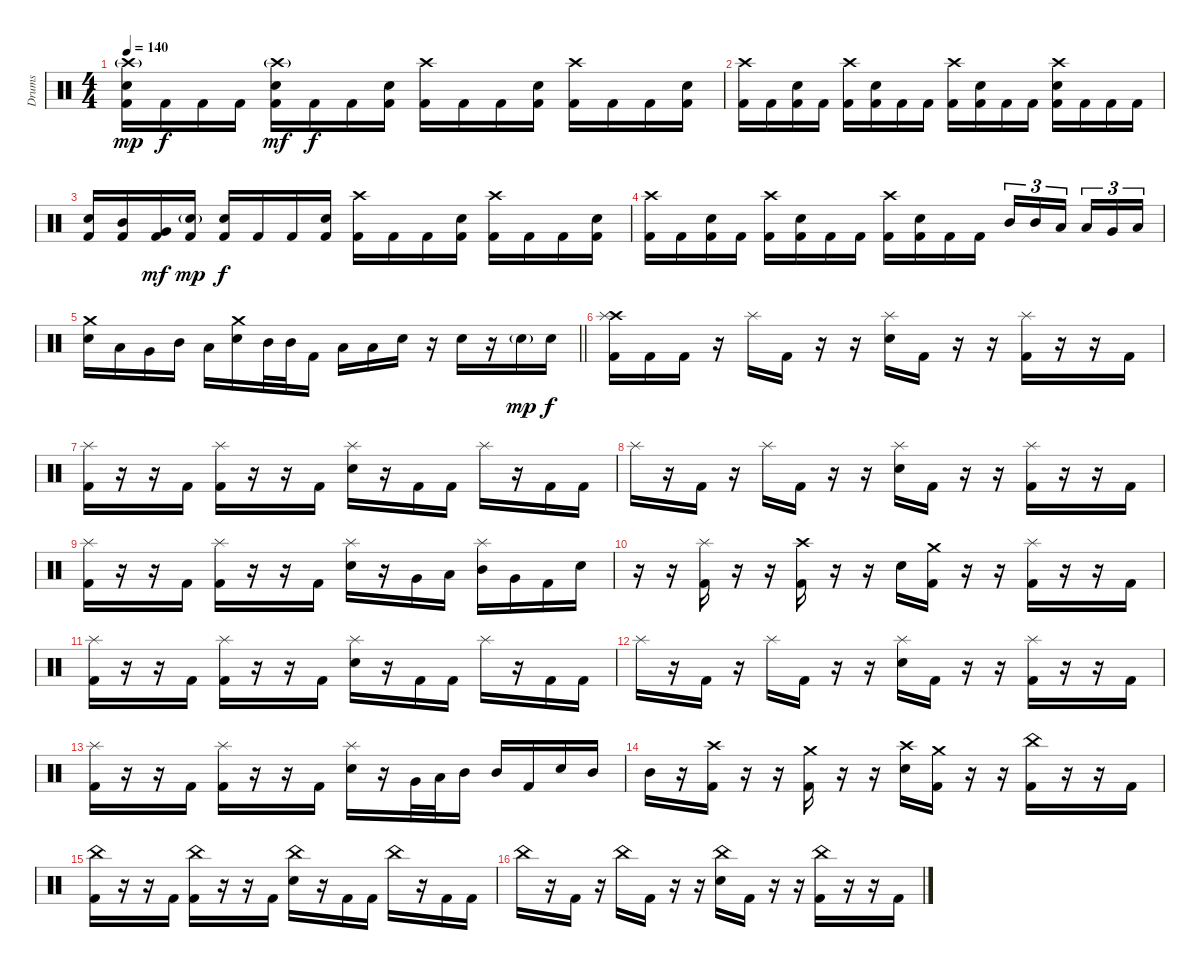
\track ("Drums" "Drums") {instrument percussion}
\staff {score}
\articulation defaults
\ts (4 4)
\tempo 140
\clef neutral
\ks c
("Crash high (hit)"{g} "Electric Snare (hit)" "Kick (hit) 2").16{dy mp} "Kick (hit) 2".16{dy f} "Kick (hit) 2".16 "Kick (hit) 2".16 ("Crash high (hit)"{g} "Electric Snare (hit)" "Kick (hit) 2").16{dy mf} "Kick (hit) 2".16{dy f} "Kick (hit) 2".16 ("Electric Snare (hit)" "Kick (hit) 2").16 ("Crash high (hit)" "Kick (hit) 2").16 "Kick (hit) 2".16 "Kick (hit) 2".16 ("Electric Snare (hit)" "Kick (hit) 2").16 ("Crash high (hit)" "Kick (hit) 2").16 "Kick (hit) 2".16 "Kick (hit) 2".16 ("Electric Snare (hit)" "Kick (hit) 2").16 |
("Crash high (hit)" "Kick (hit) 2").16 "Kick (hit) 2".16 ("Electric Snare (hit)" "Kick (hit) 2").16 "Kick (hit) 2".16 ("Crash high (hit)" "Kick (hit) 2").16 ("Electric Snare (hit)" "Kick (hit) 2").16 "Kick (hit) 2".16 "Kick (hit) 2".16 ("Crash high (hit)" "Kick (hit) 2").16 ("Electric Snare (hit)" "Kick (hit) 2").16 "Kick (hit) 2".16 "Kick (hit) 2".16 ("Crash high (hit)" "Electric Snare (hit)" "Kick (hit) 2").16 "Kick (hit) 2".16 "Kick (hit) 2".16 "Kick (hit) 2".16 |
("Electric Snare (hit)" "Kick (hit) 2").16 ("Mid Tom (hit)" "Kick (hit) 2").16 ("Very Low Tom (hit)" "Kick (hit) 2").16{dy mf} ("Electric Snare (hit)"{g} "Kick (hit) 2").16{dy mp} ("Electric Snare (hit)" "Kick (hit) 2").16{dy f} "Kick (hit) 2".16 "Kick (hit) 2".16 ("Electric Snare (hit)" "Kick (hit) 2").16 ("Crash high (hit)" "Kick (hit) 2").16 "Kick (hit) 2".16 "Kick (hit) 2".16 ("Electric Snare (hit)" "Kick (hit) 2").16 ("Crash high (hit)" "Kick (hit) 2").16 "Kick (hit) 2".16 "Kick (hit) 2".16 ("Electric Snare (hit)" "Kick (hit) 2").16 |
("Crash high (hit)" "Kick (hit) 2").16 "Kick (hit) 2".16 ("Electric Snare (hit)" "Kick (hit) 2").16 "Kick (hit) 2".16 ("Crash high (hit)" "Kick (hit) 2").16 ("Electric Snare (hit)" "Kick (hit) 2").16 "Kick (hit) 2".16 "Kick (hit) 2".16 ("Crash high (hit)" "Kick (hit) 2").16 ("Electric Snare (hit)" "Kick (hit) 2").16 "Kick (hit) 2".16 "Kick (hit) 2".16 "Mid Tom (hit)".16{tu (3 2)} "Mid Tom (hit)".16{tu (3 2)} "Low Tom (hit)".16{tu (3 2)} "Low Tom (hit)".16{tu (3 2)} "Very Low Tom (hit)".16{tu (3 2)} "Low Floor Tom (hit)".16{tu (3 2)} |
\barLineRight lightlight
("Crash medium (hit)" "Electric Snare (hit)").16 "Low Floor Tom (hit)".16 "Very Low Tom (hit)".16 "Mid Tom (hit)".16 "Low Tom (hit)".16 ("Crash medium (hit)" "Electric Snare (hit)").16 "Mid Tom (hit)".32 "Mid Tom (hit)".32 "Kick (hit) 2".16 "Low Tom (hit)".16 "Low Tom (hit)".16 "Electric Snare (hit)".16 r.16 "Electric Snare (hit)".16 r.16 "Electric Snare (hit)"{g}.16{dy mp} "Electric Snare (hit)".16{dy f} |
\section ("" "")
("Crash high (hit)" "Splash (hit)" "Kick (hit) 2").16 "Kick (hit) 2".16 "Kick (hit) 2".16 r.16 "Splash (hit)".16 "Kick (hit) 2".16 r.16 r.16 ("Splash (hit)" "Electric Snare (hit)").16 "Kick (hit) 2".16 r.16 r.16 ("Splash (hit)" "Kick (hit) 2").16 r.16 r.16 "Kick (hit) 2".16 |
("Splash (hit)" "Kick (hit) 2").16 r.16 r.16 "Kick (hit) 2".16 ("Splash (hit)" "Kick (hit) 2").16 r.16 r.16 "Kick (hit) 2".16 ("Splash (hit)" "Electric Snare (hit)").16 r.16 "Kick (hit) 2".16 "Kick (hit) 2".16 "Splash (hit)".16 r.16 "Kick (hit) 2".16 "Kick (hit) 2".16 |
"Splash (hit)".16 r.16 "Kick (hit) 2".16 r.16 "Splash (hit)".16 "Kick (hit) 2".16 r.16 r.16 ("Splash (hit)" "Electric Snare (hit)").16 "Kick (hit) 2".16 r.16 r.16 ("Splash (hit)" "Kick (hit) 2").16 r.16 r.16 "Kick (hit) 2".16 |
("Splash (hit)" "Kick (hit) 2").16 r.16 r.16 "Kick (hit) 2".16 ("Splash (hit)" "Kick (hit) 2").16 r.16 r.16 "Kick (hit) 2".16 ("Splash (hit)" "Electric Snare (hit)").16 r.16 "Very Low Tom (hit)".16 "Low Tom (hit)".16 ("Splash (hit)" "Mid Tom (hit)").16 "Very Low Tom (hit)".16 "Kick (hit) 2".16 "Electric Snare (hit)".16 |
r.16 r.16 ("Splash (hit)" "Kick (hit) 2").16 r.16 r.16 ("Crash high (hit)" "Kick (hit) 2").16 r.16 r.16 "Electric Snare (hit)".16 ("Crash medium (hit)" "Kick (hit) 2").16 r.16 r.16 ("Splash (hit)" "Kick (hit) 2").16 r.16 r.16 "Kick (hit) 2".16 |
("Splash (hit)" "Kick (hit) 2").16 r.16 r.16 "Kick (hit) 2".16 ("Splash (hit)" "Kick (hit) 2").16 r.16 r.16 "Kick (hit) 2".16 ("Splash (hit)" "Electric Snare (hit)").16 r.16 "Kick (hit) 2".16 "Kick (hit) 2".16 "Splash (hit)".16 r.16 "Kick (hit) 2".16 "Kick (hit) 2".16 |
"Splash (hit)".16 r.16 "Kick (hit) 2".16 r.16 "Splash (hit)".16 "Kick (hit) 2".16 r.16 r.16 ("Splash (hit)" "Electric Snare (hit)").16 "Kick (hit) 2".16 r.16 r.16 ("Splash (hit)" "Kick (hit) 2").16 r.16 r.16 "Kick (hit) 2".16 |
("Splash (hit)" "Kick (hit) 2").16 r.16 r.16 "Kick (hit) 2".16 ("Splash (hit)" "Kick (hit) 2").16 r.16 r.16 "Kick (hit) 2".16 ("Splash (hit)" "Electric Snare (hit)").16 r.16 "Very Low Tom (hit)".32 "Low Tom (hit)".32 "Mid Tom (hit)".16 "Mid Tom (hit)".16 "Kick (hit) 2".16 "Electric Snare (hit)".16 "Mid Tom (hit)".16 |
"Mid Tom (hit)".16 r.16 ("Crash high (hit)" "Kick (hit) 2").16 r.16 r.16 ("Crash medium (hit)" "Kick (hit) 2").16 r.16 r.16 ("Crash high (hit)" "Electric Snare (hit)").16 ("Crash medium (hit)" "Kick (hit) 2").16 r.16 r.16 ("China (hit)" "Kick (hit) 2").16 r.16 r.16 "Kick (hit) 2".16 |
("China (hit)" "Kick (hit) 2").16 r.16 r.16 "Kick (hit) 2".16 ("China (hit)" "Kick (hit) 2").16 r.16 r.16 "Kick (hit) 2".16 ("China (hit)" "Electric Snare (hit)").16 r.16 "Kick (hit) 2".16 "Kick (hit) 2".16 "China (hit)".16 r.16 "Kick (hit) 2".16 "Kick (hit) 2".16 |
"China (hit)".16 r.16 "Kick (hit) 2".16 r.16 "China (hit)".16 "Kick (hit) 2".16 r.16 r.16 ("China (hit)" "Electric Snare (hit)").16 "Kick (hit) 2".16 r.16 r.16 ("China (hit)" "Kick (hit) 2").16 r.16 r.16 "Kick (hit) 2".16
